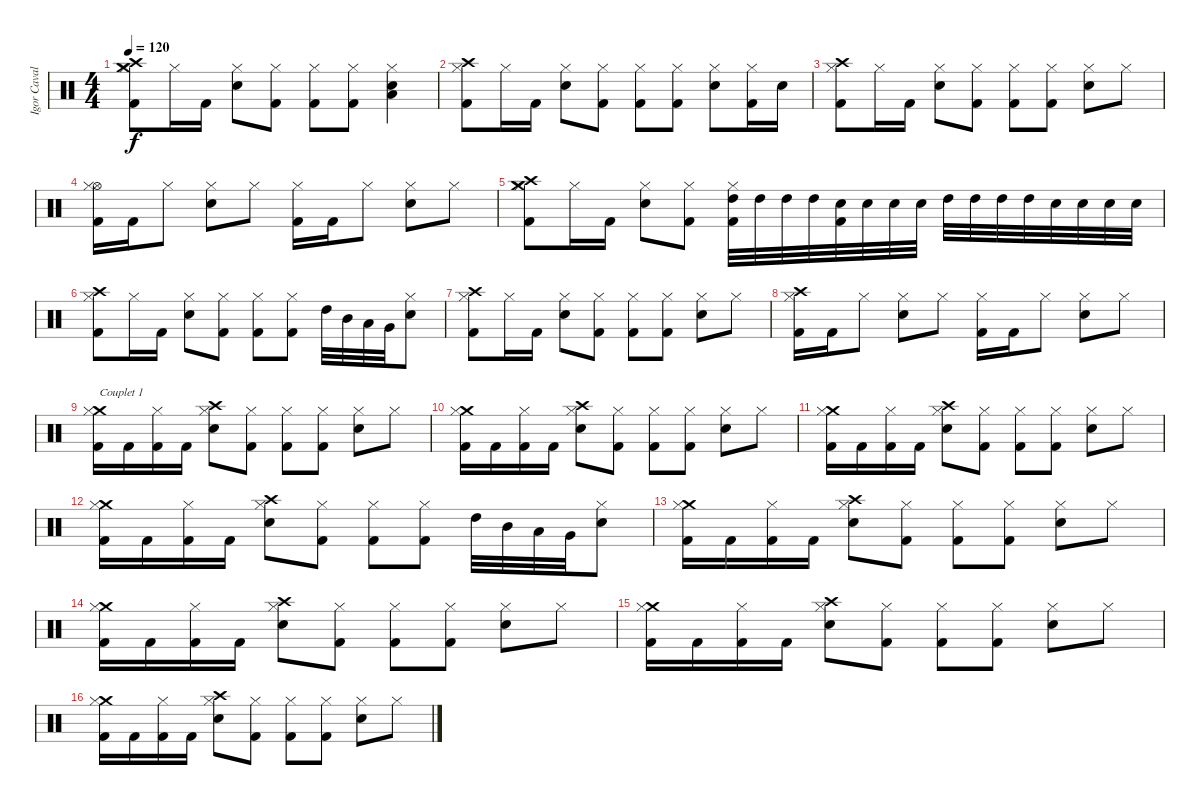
\track ("Igor Cavalera" "Igor Caval") {instrument percussion}
\staff {score}
\articulation defaults
\ts (4 4)
\tempo 120
\clef neutral
\ks c
("Crash medium (hit)" "Crash high (hit)" "Hi-Hat (closed)" "Kick (hit) 2").8{dy f} "Hi-Hat (closed)".16 "Kick (hit) 2".16 ("Electric Snare (hit)" "Hi-Hat (closed)").8 ("Hi-Hat (closed)" "Kick (hit) 2").8 ("Hi-Hat (closed)" "Kick (hit) 2").8 ("Hi-Hat (closed)" "Kick (hit) 2").8 ("Low Floor Tom (hit)" "Electric Snare (hit)" "Hi-Hat (closed)").4 |
("Crash high (hit)" "Hi-Hat (closed)" "Kick (hit) 2").8 "Hi-Hat (closed)".16 "Kick (hit) 2".16 ("Electric Snare (hit)" "Hi-Hat (closed)").8 ("Hi-Hat (closed)" "Kick (hit) 2").8 ("Hi-Hat (closed)" "Kick (hit) 2").8 ("Hi-Hat (closed)" "Kick (hit) 2").8 ("Electric Snare (hit)" "Hi-Hat (closed)").8 ("Hi-Hat (closed)" "Kick (hit) 2").16 "Electric Snare (hit)".16 |
("Crash high (hit)" "Hi-Hat (closed)" "Kick (hit) 2").8 "Hi-Hat (closed)".16 "Kick (hit) 2".16 ("Electric Snare (hit)" "Hi-Hat (closed)").8 ("Hi-Hat (closed)" "Kick (hit) 2").8 ("Hi-Hat (closed)" "Kick (hit) 2").8 ("Hi-Hat (closed)" "Kick (hit) 2").8 ("Electric Snare (hit)" "Hi-Hat (closed)").8 "Hi-Hat (closed)".8 |
("Hi-Hat (open)" "Hi-Hat (closed)" "Kick (hit) 2").16 "Kick (hit) 2".16 "Hi-Hat (closed)".8 ("Electric Snare (hit)" "Hi-Hat (closed)").8 "Hi-Hat (closed)".8 ("Hi-Hat (closed)" "Kick (hit) 2").16 "Kick (hit) 2".16 "Hi-Hat (closed)".8 ("Electric Snare (hit)" "Hi-Hat (closed)").8 "Hi-Hat (closed)".8 |
("Crash medium (hit)" "Crash high (hit)" "Hi-Hat (closed)" "Kick (hit) 2").8 "Hi-Hat (closed)".16 "Kick (hit) 2".16 ("Electric Snare (hit)" "Hi-Hat (closed)").8 ("Hi-Hat (closed)" "Kick (hit) 2").8 ("High Tom (hit)" "Hi-Hat (closed)" "Kick (hit) 2").32 "High Tom (hit)".32 "High Tom (hit)".32 "High Tom (hit)".32 ("Electric Snare (hit)" "Kick (hit) 2").32 "Electric Snare (hit)".32 "Electric Snare (hit)".32 "Electric Snare (hit)".32 "High Tom (hit)".32 "High Tom (hit)".32 "High Tom (hit)".32 "High Tom (hit)".32 "Electric Snare (hit)".32 "Electric Snare (hit)".32 "Electric Snare (hit)".32 "Electric Snare (hit)".32 |
("Crash high (hit)" "Hi-Hat (closed)" "Kick (hit) 2").8 "Hi-Hat (closed)".16 "Kick (hit) 2".16 ("Electric Snare (hit)" "Hi-Hat (closed)").8 ("Hi-Hat (closed)" "Kick (hit) 2").8 ("Hi-Hat (closed)" "Kick (hit) 2").8 ("Hi-Hat (closed)" "Kick (hit) 2").8 "High Tom (hit)".32 "Mid Tom (hit)".32 "Low Tom (hit)".32 "Very Low Tom (hit)".32 ("Electric Snare (hit)" "Hi-Hat (closed)").8 |
("Crash high (hit)" "Hi-Hat (closed)" "Kick (hit) 2").8 "Hi-Hat (closed)".16 "Kick (hit) 2".16 ("Electric Snare (hit)" "Hi-Hat (closed)").8 ("Hi-Hat (closed)" "Kick (hit) 2").8 ("Hi-Hat (closed)" "Kick (hit) 2").8 ("Hi-Hat (closed)" "Kick (hit) 2").8 ("Electric Snare (hit)" "Hi-Hat (closed)").8 "Hi-Hat (closed)".8 |
("Crash high (hit)" "Hi-Hat (closed)" "Kick (hit) 2").16 "Kick (hit) 2".16 "Hi-Hat (closed)".8 ("Electric Snare (hit)" "Hi-Hat (closed)").8 "Hi-Hat (closed)".8 ("Hi-Hat (closed)" "Kick (hit) 2").16 "Kick (hit) 2".16 "Hi-Hat (closed)".8 ("Electric Snare (hit)" "Hi-Hat (closed)").8 "Hi-Hat (closed)".8 |
("Crash medium (hit)" "Hi-Hat (closed)" "Kick (hit) 2").16{txt "Couplet 1"} "Kick (hit) 2".16 ("Hi-Hat (closed)" "Kick (hit) 2").16 "Kick (hit) 2".16 ("Crash high (hit)" "Electric Snare (hit)" "Hi-Hat (closed)").8 ("Hi-Hat (closed)" "Kick (hit) 2").8 ("Hi-Hat (closed)" "Kick (hit) 2").8 ("Hi-Hat (closed)" "Kick (hit) 2").8 ("Electric Snare (hit)" "Hi-Hat (closed)").8 "Hi-Hat (closed)".8 |
("Crash medium (hit)" "Hi-Hat (closed)" "Kick (hit) 2").16 "Kick (hit) 2".16 ("Hi-Hat (closed)" "Kick (hit) 2").16 "Kick (hit) 2".16 ("Crash high (hit)" "Electric Snare (hit)" "Hi-Hat (closed)").8 ("Hi-Hat (closed)" "Kick (hit) 2").8 ("Hi-Hat (closed)" "Kick (hit) 2").8 ("Hi-Hat (closed)" "Kick (hit) 2").8 ("Electric Snare (hit)" "Hi-Hat (closed)").8 "Hi-Hat (closed)".8 |
("Crash medium (hit)" "Hi-Hat (closed)" "Kick (hit) 2").16 "Kick (hit) 2".16 ("Hi-Hat (closed)" "Kick (hit) 2").16 "Kick (hit) 2".16 ("Crash high (hit)" "Electric Snare (hit)" "Hi-Hat (closed)").8 ("Hi-Hat (closed)" "Kick (hit) 2").8 ("Hi-Hat (closed)" "Kick (hit) 2").8 ("Hi-Hat (closed)" "Kick (hit) 2").8 ("Electric Snare (hit)" "Hi-Hat (closed)").8 "Hi-Hat (closed)".8 |
("Crash medium (hit)" "Hi-Hat (closed)" "Kick (hit) 2").16 "Kick (hit) 2".16 ("Hi-Hat (closed)" "Kick (hit) 2").16 "Kick (hit) 2".16 ("Crash high (hit)" "Electric Snare (hit)" "Hi-Hat (closed)").8 ("Hi-Hat (closed)" "Kick (hit) 2").8 ("Hi-Hat (closed)" "Kick (hit) 2").8 ("Hi-Hat (closed)" "Kick (hit) 2").8 "High Tom (hit)".32 "Mid Tom (hit)".32 "Low Tom (hit)".32 "Very Low Tom (hit)".32 ("Electric Snare (hit)" "Hi-Hat (closed)").8 |
("Crash medium (hit)" "Hi-Hat (closed)" "Kick (hit) 2").16 "Kick (hit) 2".16 ("Hi-Hat (closed)" "Kick (hit) 2").16 "Kick (hit) 2".16 ("Crash high (hit)" "Electric Snare (hit)" "Hi-Hat (closed)").8 ("Hi-Hat (closed)" "Kick (hit) 2").8 ("Hi-Hat (closed)" "Kick (hit) 2").8 ("Hi-Hat (closed)" "Kick (hit) 2").8 ("Electric Snare (hit)" "Hi-Hat (closed)").8 "Hi-Hat (closed)".8 |
("Crash medium (hit)" "Hi-Hat (closed)" "Kick (hit) 2").16 "Kick (hit) 2".16 ("Hi-Hat (closed)" "Kick (hit) 2").16 "Kick (hit) 2".16 ("Crash high (hit)" "Electric Snare (hit)" "Hi-Hat (closed)").8 ("Hi-Hat (closed)" "Kick (hit) 2").8 ("Hi-Hat (closed)" "Kick (hit) 2").8 ("Hi-Hat (closed)" "Kick (hit) 2").8 ("Electric Snare (hit)" "Hi-Hat (closed)").8 "Hi-Hat (closed)".8 |
("Crash medium (hit)" "Hi-Hat (closed)" "Kick (hit) 2").16 "Kick (hit) 2".16 ("Hi-Hat (closed)" "Kick (hit) 2").16 "Kick (hit) 2".16 ("Crash high (hit)" "Electric Snare (hit)" "Hi-Hat (closed)").8 ("Hi-Hat (closed)" "Kick (hit) 2").8 ("Hi-Hat (closed)" "Kick (hit) 2").8 ("Hi-Hat (closed)" "Kick (hit) 2").8 ("Electric Snare (hit)" "Hi-Hat (closed)").8 "Hi-Hat (closed)".8 |
("Crash medium (hit)" "Hi-Hat (closed)" "Kick (hit) 2").16 "Kick (hit) 2".16 ("Hi-Hat (closed)" "Kick (hit) 2").16 "Kick (hit) 2".16 ("Crash high (hit)" "Electric Snare (hit)" "Hi-Hat (closed)").8 ("Hi-Hat (closed)" "Kick (hit) 2").8 ("Hi-Hat (closed)" "Kick (hit) 2").8 ("Hi-Hat (closed)" "Kick (hit) 2").8 ("Electric Snare (hit)" "Hi-Hat (closed)").8 "Hi-Hat (closed)".8
